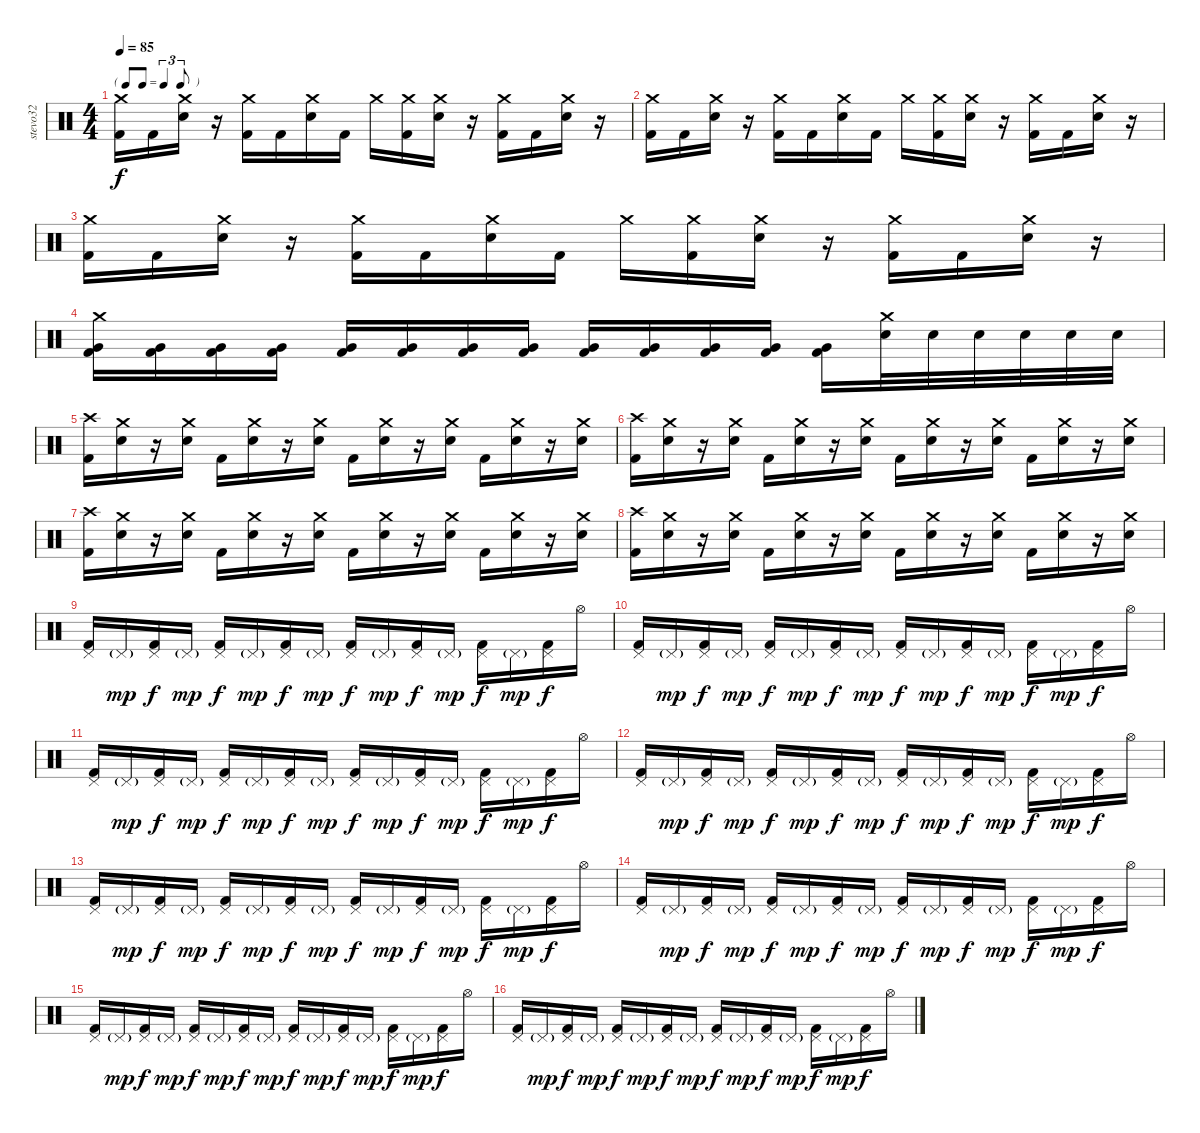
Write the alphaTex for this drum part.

\track ("stevo32" "stevo32") {instrument percussion}
\staff {score}
\articulation defaults
\ts (4 4)
\tf triplet8th
\tempo 85
\clef neutral
\ks c
("Crash medium (hit)" "Kick (hit) 2").16{dy f} "Kick (hit) 2".16 ("Crash medium (hit)" "Electric Snare (hit)").16 r.16 ("Crash medium (hit)" "Kick (hit) 2").16 "Kick (hit) 2".16 ("Crash medium (hit)" "Electric Snare (hit)").16 "Kick (hit) 2".16 "Crash medium (hit)".16 ("Crash medium (hit)" "Kick (hit) 2").16 ("Crash medium (hit)" "Electric Snare (hit)").16 r.16 ("Crash medium (hit)" "Kick (hit) 2").16 "Kick (hit) 2".16 ("Crash medium (hit)" "Electric Snare (hit)").16 r.16 |
("Crash medium (hit)" "Kick (hit) 2").16 "Kick (hit) 2".16 ("Crash medium (hit)" "Electric Snare (hit)").16 r.16 ("Crash medium (hit)" "Kick (hit) 2").16 "Kick (hit) 2".16 ("Crash medium (hit)" "Electric Snare (hit)").16 "Kick (hit) 2".16 "Crash medium (hit)".16 ("Crash medium (hit)" "Kick (hit) 2").16 ("Crash medium (hit)" "Electric Snare (hit)").16 r.16 ("Crash medium (hit)" "Kick (hit) 2").16 "Kick (hit) 2".16 ("Crash medium (hit)" "Electric Snare (hit)").16 r.16 |
("Crash medium (hit)" "Kick (hit) 2").16 "Kick (hit) 2".16 ("Crash medium (hit)" "Electric Snare (hit)").16 r.16 ("Crash medium (hit)" "Kick (hit) 2").16 "Kick (hit) 2".16 ("Crash medium (hit)" "Electric Snare (hit)").16 "Kick (hit) 2".16 "Crash medium (hit)".16 ("Crash medium (hit)" "Kick (hit) 2").16 ("Crash medium (hit)" "Electric Snare (hit)").16 r.16 ("Crash medium (hit)" "Kick (hit) 2").16 "Kick (hit) 2".16 ("Crash medium (hit)" "Electric Snare (hit)").16 r.16 |
("Crash medium (hit)" "Kick (hit) 2" "Very Low Tom (hit)").16 ("Kick (hit) 2" "Very Low Tom (hit)").16 ("Kick (hit) 2" "Very Low Tom (hit)").16 ("Kick (hit) 2" "Very Low Tom (hit)").16 ("Kick (hit) 2" "Very Low Tom (hit)").16 ("Kick (hit) 2" "Very Low Tom (hit)").16 ("Kick (hit) 2" "Very Low Tom (hit)").16 ("Kick (hit) 2" "Very Low Tom (hit)").16 ("Kick (hit) 2" "Very Low Tom (hit)").16 ("Kick (hit) 2" "Very Low Tom (hit)").16 ("Kick (hit) 2" "Very Low Tom (hit)").16 ("Kick (hit) 2" "Very Low Tom (hit)").16 ("Kick (hit) 2" "Very Low Tom (hit)").16 ("Crash medium (hit)" "Electric Snare (hit)").32 "Electric Snare (hit)".32 "Electric Snare (hit)".32 "Electric Snare (hit)".32 "Electric Snare (hit)".32 "Electric Snare (hit)".32 |
("Crash high (hit)" "Kick (hit) 2").16 ("Crash medium (hit)" "Electric Snare (hit)").16 r.16 ("Crash medium (hit)" "Electric Snare (hit)").16 "Kick (hit) 2".16 ("Crash medium (hit)" "Electric Snare (hit)").16 r.16 ("Crash medium (hit)" "Electric Snare (hit)").16 "Kick (hit) 2".16 ("Crash medium (hit)" "Electric Snare (hit)").16 r.16 ("Crash medium (hit)" "Electric Snare (hit)").16 "Kick (hit) 2".16 ("Crash medium (hit)" "Electric Snare (hit)").16 r.16 ("Crash medium (hit)" "Electric Snare (hit)").16 |
("Crash high (hit)" "Kick (hit) 2").16 ("Crash medium (hit)" "Electric Snare (hit)").16 r.16 ("Crash medium (hit)" "Electric Snare (hit)").16 "Kick (hit) 2".16 ("Crash medium (hit)" "Electric Snare (hit)").16 r.16 ("Crash medium (hit)" "Electric Snare (hit)").16 "Kick (hit) 2".16 ("Crash medium (hit)" "Electric Snare (hit)").16 r.16 ("Crash medium (hit)" "Electric Snare (hit)").16 "Kick (hit) 2".16 ("Crash medium (hit)" "Electric Snare (hit)").16 r.16 ("Crash medium (hit)" "Electric Snare (hit)").16 |
("Crash high (hit)" "Kick (hit) 2").16 ("Crash medium (hit)" "Electric Snare (hit)").16 r.16 ("Crash medium (hit)" "Electric Snare (hit)").16 "Kick (hit) 2".16 ("Crash medium (hit)" "Electric Snare (hit)").16 r.16 ("Crash medium (hit)" "Electric Snare (hit)").16 "Kick (hit) 2".16 ("Crash medium (hit)" "Electric Snare (hit)").16 r.16 ("Crash medium (hit)" "Electric Snare (hit)").16 "Kick (hit) 2".16 ("Crash medium (hit)" "Electric Snare (hit)").16 r.16 ("Crash medium (hit)" "Electric Snare (hit)").16 |
("Crash high (hit)" "Kick (hit) 2").16 ("Crash medium (hit)" "Electric Snare (hit)").16 r.16 ("Crash medium (hit)" "Electric Snare (hit)").16 "Kick (hit) 2".16 ("Crash medium (hit)" "Electric Snare (hit)").16 r.16 ("Crash medium (hit)" "Electric Snare (hit)").16 "Kick (hit) 2".16 ("Crash medium (hit)" "Electric Snare (hit)").16 r.16 ("Crash medium (hit)" "Electric Snare (hit)").16 "Kick (hit) 2".16 ("Crash medium (hit)" "Electric Snare (hit)").16 r.16 ("Crash medium (hit)" "Electric Snare (hit)").16 |
("Pedal Hi-Hat (hit)" "Kick (hit) 2").16 "Pedal Hi-Hat (hit)"{g}.16{dy mp} ("Pedal Hi-Hat (hit)" "Kick (hit) 2").16{dy f} "Pedal Hi-Hat (hit)"{g}.16{dy mp} ("Pedal Hi-Hat (hit)" "Kick (hit) 2").16{dy f} "Pedal Hi-Hat (hit)"{g}.16{dy mp} ("Pedal Hi-Hat (hit)" "Kick (hit) 2").16{dy f} "Pedal Hi-Hat (hit)"{g}.16{dy mp} ("Pedal Hi-Hat (hit)" "Kick (hit) 2").16{dy f} "Pedal Hi-Hat (hit)"{g}.16{dy mp} ("Pedal Hi-Hat (hit)" "Kick (hit) 2").16{dy f} "Pedal Hi-Hat (hit)"{g}.16{dy mp} ("Pedal Hi-Hat (hit)" "Kick (hit) 2").16{dy f} "Pedal Hi-Hat (hit)"{g}.16{dy mp} ("Pedal Hi-Hat (hit)" "Kick (hit) 2").16{dy f} "Hi-Hat (open)".16 |
("Pedal Hi-Hat (hit)" "Kick (hit) 2").16 "Pedal Hi-Hat (hit)"{g}.16{dy mp} ("Pedal Hi-Hat (hit)" "Kick (hit) 2").16{dy f} "Pedal Hi-Hat (hit)"{g}.16{dy mp} ("Pedal Hi-Hat (hit)" "Kick (hit) 2").16{dy f} "Pedal Hi-Hat (hit)"{g}.16{dy mp} ("Pedal Hi-Hat (hit)" "Kick (hit) 2").16{dy f} "Pedal Hi-Hat (hit)"{g}.16{dy mp} ("Pedal Hi-Hat (hit)" "Kick (hit) 2").16{dy f} "Pedal Hi-Hat (hit)"{g}.16{dy mp} ("Pedal Hi-Hat (hit)" "Kick (hit) 2").16{dy f} "Pedal Hi-Hat (hit)"{g}.16{dy mp} ("Pedal Hi-Hat (hit)" "Kick (hit) 2").16{dy f} "Pedal Hi-Hat (hit)"{g}.16{dy mp} ("Pedal Hi-Hat (hit)" "Kick (hit) 2").16{dy f} "Hi-Hat (open)".16 |
("Pedal Hi-Hat (hit)" "Kick (hit) 2").16 "Pedal Hi-Hat (hit)"{g}.16{dy mp} ("Pedal Hi-Hat (hit)" "Kick (hit) 2").16{dy f} "Pedal Hi-Hat (hit)"{g}.16{dy mp} ("Pedal Hi-Hat (hit)" "Kick (hit) 2").16{dy f} "Pedal Hi-Hat (hit)"{g}.16{dy mp} ("Pedal Hi-Hat (hit)" "Kick (hit) 2").16{dy f} "Pedal Hi-Hat (hit)"{g}.16{dy mp} ("Pedal Hi-Hat (hit)" "Kick (hit) 2").16{dy f} "Pedal Hi-Hat (hit)"{g}.16{dy mp} ("Pedal Hi-Hat (hit)" "Kick (hit) 2").16{dy f} "Pedal Hi-Hat (hit)"{g}.16{dy mp} ("Pedal Hi-Hat (hit)" "Kick (hit) 2").16{dy f} "Pedal Hi-Hat (hit)"{g}.16{dy mp} ("Pedal Hi-Hat (hit)" "Kick (hit) 2").16{dy f} "Hi-Hat (open)".16 |
("Pedal Hi-Hat (hit)" "Kick (hit) 2").16 "Pedal Hi-Hat (hit)"{g}.16{dy mp} ("Pedal Hi-Hat (hit)" "Kick (hit) 2").16{dy f} "Pedal Hi-Hat (hit)"{g}.16{dy mp} ("Pedal Hi-Hat (hit)" "Kick (hit) 2").16{dy f} "Pedal Hi-Hat (hit)"{g}.16{dy mp} ("Pedal Hi-Hat (hit)" "Kick (hit) 2").16{dy f} "Pedal Hi-Hat (hit)"{g}.16{dy mp} ("Pedal Hi-Hat (hit)" "Kick (hit) 2").16{dy f} "Pedal Hi-Hat (hit)"{g}.16{dy mp} ("Pedal Hi-Hat (hit)" "Kick (hit) 2").16{dy f} "Pedal Hi-Hat (hit)"{g}.16{dy mp} ("Pedal Hi-Hat (hit)" "Kick (hit) 2").16{dy f} "Pedal Hi-Hat (hit)"{g}.16{dy mp} ("Pedal Hi-Hat (hit)" "Kick (hit) 2").16{dy f} "Hi-Hat (open)".16 |
("Pedal Hi-Hat (hit)" "Kick (hit) 2").16 "Pedal Hi-Hat (hit)"{g}.16{dy mp} ("Pedal Hi-Hat (hit)" "Kick (hit) 2").16{dy f} "Pedal Hi-Hat (hit)"{g}.16{dy mp} ("Pedal Hi-Hat (hit)" "Kick (hit) 2").16{dy f} "Pedal Hi-Hat (hit)"{g}.16{dy mp} ("Pedal Hi-Hat (hit)" "Kick (hit) 2").16{dy f} "Pedal Hi-Hat (hit)"{g}.16{dy mp} ("Pedal Hi-Hat (hit)" "Kick (hit) 2").16{dy f} "Pedal Hi-Hat (hit)"{g}.16{dy mp} ("Pedal Hi-Hat (hit)" "Kick (hit) 2").16{dy f} "Pedal Hi-Hat (hit)"{g}.16{dy mp} ("Pedal Hi-Hat (hit)" "Kick (hit) 2").16{dy f} "Pedal Hi-Hat (hit)"{g}.16{dy mp} ("Pedal Hi-Hat (hit)" "Kick (hit) 2").16{dy f} "Hi-Hat (open)".16 |
("Pedal Hi-Hat (hit)" "Kick (hit) 2").16 "Pedal Hi-Hat (hit)"{g}.16{dy mp} ("Pedal Hi-Hat (hit)" "Kick (hit) 2").16{dy f} "Pedal Hi-Hat (hit)"{g}.16{dy mp} ("Pedal Hi-Hat (hit)" "Kick (hit) 2").16{dy f} "Pedal Hi-Hat (hit)"{g}.16{dy mp} ("Pedal Hi-Hat (hit)" "Kick (hit) 2").16{dy f} "Pedal Hi-Hat (hit)"{g}.16{dy mp} ("Pedal Hi-Hat (hit)" "Kick (hit) 2").16{dy f} "Pedal Hi-Hat (hit)"{g}.16{dy mp} ("Pedal Hi-Hat (hit)" "Kick (hit) 2").16{dy f} "Pedal Hi-Hat (hit)"{g}.16{dy mp} ("Pedal Hi-Hat (hit)" "Kick (hit) 2").16{dy f} "Pedal Hi-Hat (hit)"{g}.16{dy mp} ("Pedal Hi-Hat (hit)" "Kick (hit) 2").16{dy f} "Hi-Hat (open)".16 |
("Pedal Hi-Hat (hit)" "Kick (hit) 2").16 "Pedal Hi-Hat (hit)"{g}.16{dy mp} ("Pedal Hi-Hat (hit)" "Kick (hit) 2").16{dy f} "Pedal Hi-Hat (hit)"{g}.16{dy mp} ("Pedal Hi-Hat (hit)" "Kick (hit) 2").16{dy f} "Pedal Hi-Hat (hit)"{g}.16{dy mp} ("Pedal Hi-Hat (hit)" "Kick (hit) 2").16{dy f} "Pedal Hi-Hat (hit)"{g}.16{dy mp} ("Pedal Hi-Hat (hit)" "Kick (hit) 2").16{dy f} "Pedal Hi-Hat (hit)"{g}.16{dy mp} ("Pedal Hi-Hat (hit)" "Kick (hit) 2").16{dy f} "Pedal Hi-Hat (hit)"{g}.16{dy mp} ("Pedal Hi-Hat (hit)" "Kick (hit) 2").16{dy f} "Pedal Hi-Hat (hit)"{g}.16{dy mp} ("Pedal Hi-Hat (hit)" "Kick (hit) 2").16{dy f} "Hi-Hat (open)".16 |
("Pedal Hi-Hat (hit)" "Kick (hit) 2").16 "Pedal Hi-Hat (hit)"{g}.16{dy mp} ("Pedal Hi-Hat (hit)" "Kick (hit) 2").16{dy f} "Pedal Hi-Hat (hit)"{g}.16{dy mp} ("Pedal Hi-Hat (hit)" "Kick (hit) 2").16{dy f} "Pedal Hi-Hat (hit)"{g}.16{dy mp} ("Pedal Hi-Hat (hit)" "Kick (hit) 2").16{dy f} "Pedal Hi-Hat (hit)"{g}.16{dy mp} ("Pedal Hi-Hat (hit)" "Kick (hit) 2").16{dy f} "Pedal Hi-Hat (hit)"{g}.16{dy mp} ("Pedal Hi-Hat (hit)" "Kick (hit) 2").16{dy f} "Pedal Hi-Hat (hit)"{g}.16{dy mp} ("Pedal Hi-Hat (hit)" "Kick (hit) 2").16{dy f} "Pedal Hi-Hat (hit)"{g}.16{dy mp} ("Pedal Hi-Hat (hit)" "Kick (hit) 2").16{dy f} "Hi-Hat (open)".16
